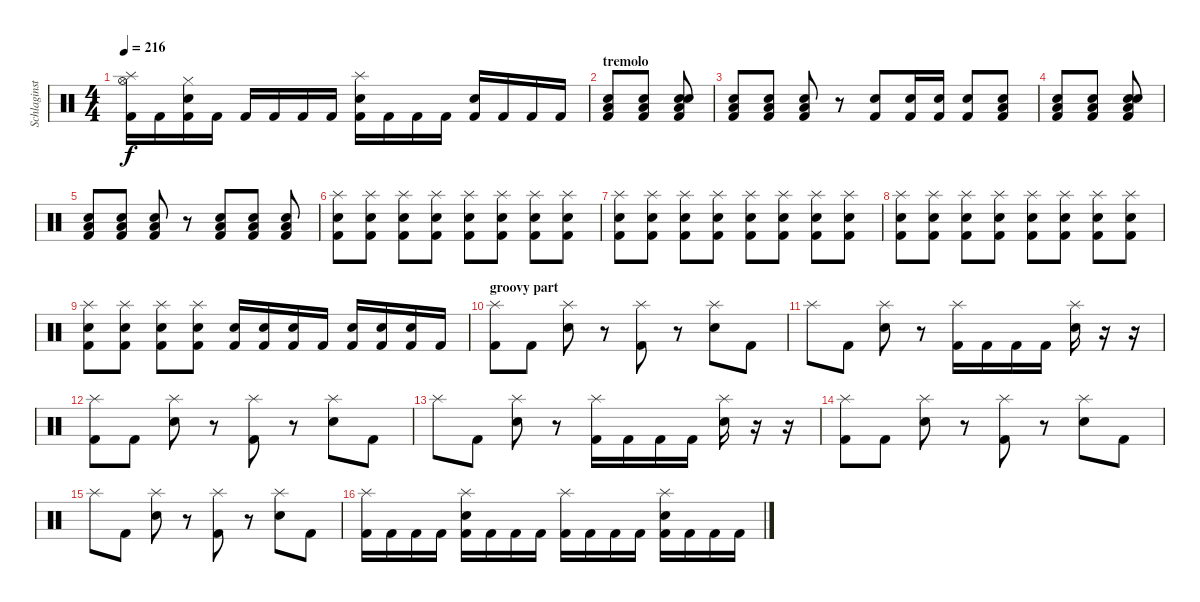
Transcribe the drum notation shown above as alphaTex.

\track ("Schlaginstrumente - Auswahl" "Schlaginst") {instrument percussion}
\staff {score}
\articulation defaults
\ts (4 4)
\tempo 216
\clef neutral
\ks c
("Splash (hit)" "Hi-Hat (open)" "Kick (hit) 2").16{dy f} "Kick (hit) 2".16 ("Electric Snare (hit)" "Hi-Hat (closed)" "Kick (hit) 2").16 "Kick (hit) 2".16 "Kick (hit) 2".16 "Kick (hit) 2".16 "Kick (hit) 2".16 "Kick (hit) 2".16 ("Electric Snare (hit)" "Splash (hit)" "Kick (hit) 2").16 "Kick (hit) 2".16 "Kick (hit) 2".16 "Kick (hit) 2".16 ("Electric Snare (hit)" "Kick (hit) 2").16 "Kick (hit) 2".16 "Kick (hit) 2".16 "Kick (hit) 2".16 |
\section ("" "tremolo")
("Electric Snare (hit)" "Low Tom (hit)" "Kick (hit) 2").8 ("Electric Snare (hit)" "Low Tom (hit)" "Kick (hit) 2").8 ("Electric Snare (hit)" "Snare (hit)" "Low Tom (hit)" "Kick (hit) 2").8 |
("Electric Snare (hit)" "Low Tom (hit)" "Kick (hit) 2").8 ("Electric Snare (hit)" "Low Tom (hit)" "Kick (hit) 2").8 ("Electric Snare (hit)" "Low Tom (hit)" "Kick (hit) 2").8 r.8 ("Electric Snare (hit)" "Kick (hit) 2").8 ("Electric Snare (hit)" "Kick (hit) 2").16 ("Electric Snare (hit)" "Kick (hit) 2").16 ("Electric Snare (hit)" "Kick (hit) 2").8 ("Electric Snare (hit)" "Low Tom (hit)" "Kick (hit) 2").8 |
("Electric Snare (hit)" "Low Tom (hit)" "Kick (hit) 2").8 ("Electric Snare (hit)" "Low Tom (hit)" "Kick (hit) 2").8 ("Electric Snare (hit)" "Snare (hit)" "Low Tom (hit)" "Kick (hit) 2").8 |
("Electric Snare (hit)" "Low Tom (hit)" "Kick (hit) 2").8 ("Electric Snare (hit)" "Low Tom (hit)" "Kick (hit) 2").8 ("Electric Snare (hit)" "Low Tom (hit)" "Kick (hit) 2").8 r.8 ("Electric Snare (hit)" "Low Tom (hit)" "Kick (hit) 2").8 ("Electric Snare (hit)" "Low Tom (hit)" "Kick (hit) 2").8 ("Electric Snare (hit)" "Low Tom (hit)" "Kick (hit) 2").8 |
("Electric Snare (hit)" "Splash (hit)" "Kick (hit) 2").8 ("Electric Snare (hit)" "Splash (hit)" "Kick (hit) 2").8 ("Electric Snare (hit)" "Splash (hit)" "Kick (hit) 2").8 ("Electric Snare (hit)" "Splash (hit)" "Kick (hit) 2").8 ("Electric Snare (hit)" "Splash (hit)" "Kick (hit) 2").8 ("Electric Snare (hit)" "Splash (hit)" "Kick (hit) 2").8 ("Electric Snare (hit)" "Splash (hit)" "Kick (hit) 2").8 ("Electric Snare (hit)" "Splash (hit)" "Kick (hit) 2").8 |
("Electric Snare (hit)" "Splash (hit)" "Kick (hit) 2").8 ("Electric Snare (hit)" "Splash (hit)" "Kick (hit) 2").8 ("Electric Snare (hit)" "Splash (hit)" "Kick (hit) 2").8 ("Electric Snare (hit)" "Splash (hit)" "Kick (hit) 2").8 ("Electric Snare (hit)" "Splash (hit)" "Kick (hit) 2").8 ("Electric Snare (hit)" "Splash (hit)" "Kick (hit) 2").8 ("Electric Snare (hit)" "Splash (hit)" "Kick (hit) 2").8 ("Electric Snare (hit)" "Splash (hit)" "Kick (hit) 2").8 |
("Electric Snare (hit)" "Splash (hit)" "Kick (hit) 2").8 ("Electric Snare (hit)" "Splash (hit)" "Kick (hit) 2").8 ("Electric Snare (hit)" "Splash (hit)" "Kick (hit) 2").8 ("Electric Snare (hit)" "Splash (hit)" "Kick (hit) 2").8 ("Electric Snare (hit)" "Splash (hit)" "Kick (hit) 2").8 ("Electric Snare (hit)" "Splash (hit)" "Kick (hit) 2").8 ("Electric Snare (hit)" "Splash (hit)" "Kick (hit) 2").8 ("Electric Snare (hit)" "Splash (hit)" "Kick (hit) 2").8 |
("Electric Snare (hit)" "Splash (hit)" "Kick (hit) 2").8 ("Electric Snare (hit)" "Splash (hit)" "Kick (hit) 2").8 ("Electric Snare (hit)" "Splash (hit)" "Kick (hit) 2").8 ("Electric Snare (hit)" "Splash (hit)" "Kick (hit) 2").8 ("Electric Snare (hit)" "Kick (hit) 2").16 ("Electric Snare (hit)" "Kick (hit) 2").16 ("Electric Snare (hit)" "Kick (hit) 2").16 "Kick (hit) 2".16 ("Electric Snare (hit)" "Kick (hit) 2").16 ("Electric Snare (hit)" "Kick (hit) 2").16 ("Electric Snare (hit)" "Kick (hit) 2").16 "Kick (hit) 2".16 |
\section ("" "groovy part")
("Splash (hit)" "Kick (hit) 2").8 "Kick (hit) 2".8 ("Electric Snare (hit)" "Splash (hit)").8 r.8 ("Splash (hit)" "Kick (hit) 2").8 r.8 ("Electric Snare (hit)" "Splash (hit)").8 "Kick (hit) 2".8 |
"Splash (hit)".8 "Kick (hit) 2".8 ("Electric Snare (hit)" "Splash (hit)").8 r.8 ("Splash (hit)" "Kick (hit) 2").16 "Kick (hit) 2".16 "Kick (hit) 2".16 "Kick (hit) 2".16 ("Electric Snare (hit)" "Splash (hit)").16 r.16 r.16 |
("Splash (hit)" "Kick (hit) 2").8 "Kick (hit) 2".8 ("Electric Snare (hit)" "Splash (hit)").8 r.8 ("Splash (hit)" "Kick (hit) 2").8 r.8 ("Electric Snare (hit)" "Splash (hit)").8 "Kick (hit) 2".8 |
"Splash (hit)".8 "Kick (hit) 2".8 ("Electric Snare (hit)" "Splash (hit)").8 r.8 ("Splash (hit)" "Kick (hit) 2").16 "Kick (hit) 2".16 "Kick (hit) 2".16 "Kick (hit) 2".16 ("Electric Snare (hit)" "Splash (hit)").16 r.16 r.16 |
("Splash (hit)" "Kick (hit) 2").8 "Kick (hit) 2".8 ("Electric Snare (hit)" "Splash (hit)").8 r.8 ("Splash (hit)" "Kick (hit) 2").8 r.8 ("Electric Snare (hit)" "Splash (hit)").8 "Kick (hit) 2".8 |
"Splash (hit)".8 "Kick (hit) 2".8 ("Electric Snare (hit)" "Splash (hit)").8 r.8 ("Splash (hit)" "Kick (hit) 2").8 r.8 ("Electric Snare (hit)" "Splash (hit)").8 "Kick (hit) 2".8 |
("Splash (hit)" "Kick (hit) 2").16 "Kick (hit) 2".16 "Kick (hit) 2".16 "Kick (hit) 2".16 ("Electric Snare (hit)" "Splash (hit)" "Kick (hit) 2").16 "Kick (hit) 2".16 "Kick (hit) 2".16 "Kick (hit) 2".16 ("Splash (hit)" "Kick (hit) 2").16 "Kick (hit) 2".16 "Kick (hit) 2".16 "Kick (hit) 2".16 ("Electric Snare (hit)" "Splash (hit)" "Kick (hit) 2").16 "Kick (hit) 2".16 "Kick (hit) 2".16 "Kick (hit) 2".16
